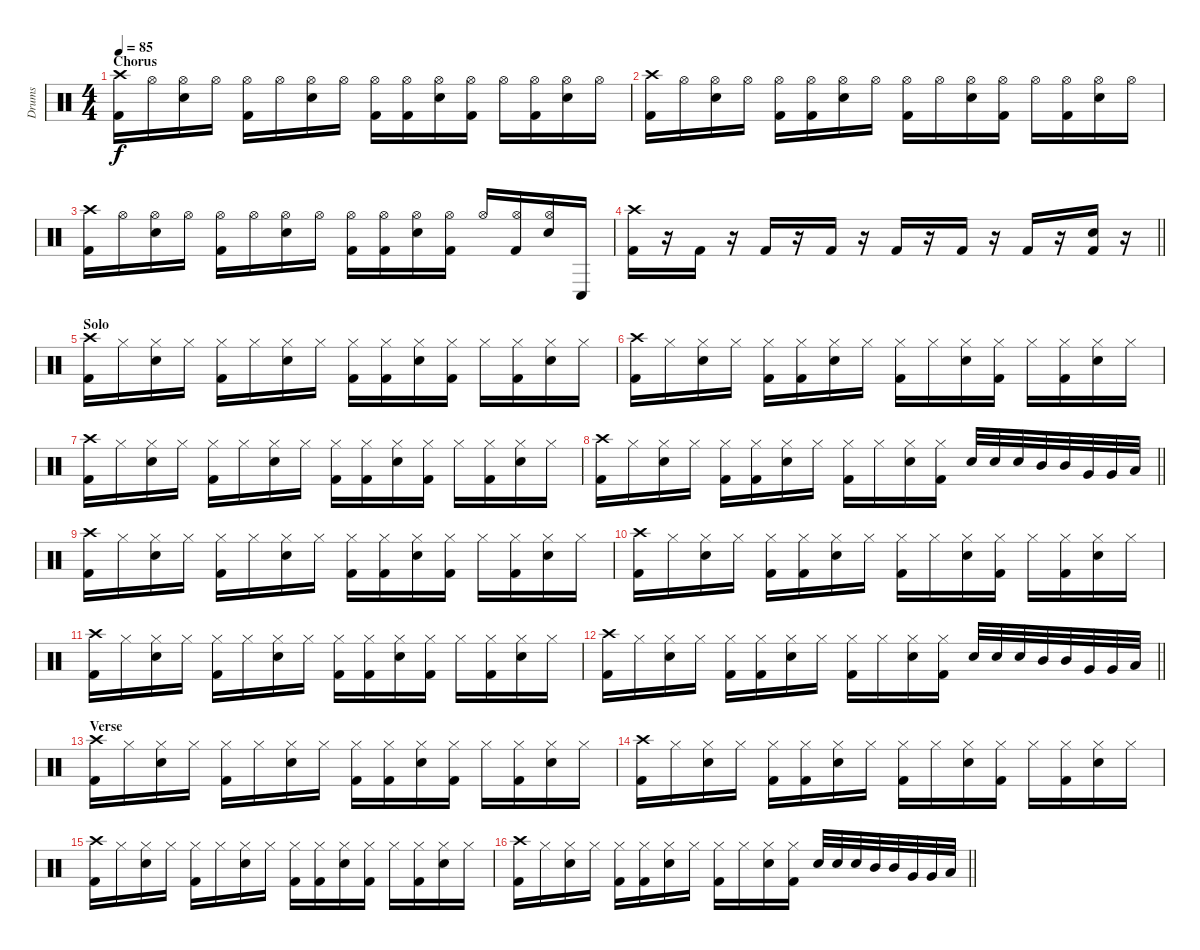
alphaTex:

\track ("Drums" "Drums") {instrument percussion}
\staff {score}
\articulation defaults
\ts (4 4)
\section ("" "Chorus")
\tempo 85
\clef neutral
\ks c
("Crash high (hit)" "Kick (hit) 2").16{dy f} "Hi-Hat (open)".16 ("Hi-Hat (open)" "Snare (hit) 2").16 "Hi-Hat (open)".16 ("Hi-Hat (open)" "Kick (hit) 2").16 "Hi-Hat (open)".16 ("Hi-Hat (open)" "Snare (hit) 2").16 "Hi-Hat (open)".16 ("Hi-Hat (open)" "Kick (hit) 2").16 ("Hi-Hat (open)" "Kick (hit) 2").16 ("Hi-Hat (open)" "Snare (hit) 2").16 ("Hi-Hat (open)" "Kick (hit) 2").16 "Hi-Hat (open)".16 ("Hi-Hat (open)" "Kick (hit) 2").16 ("Hi-Hat (open)" "Snare (hit) 2").16 "Hi-Hat (open)".16 |
("Crash high (hit)" "Kick (hit) 2").16 "Hi-Hat (open)".16 ("Hi-Hat (open)" "Snare (hit) 2").16 "Hi-Hat (open)".16 ("Hi-Hat (open)" "Kick (hit) 2").16 ("Hi-Hat (open)" "Kick (hit) 2").16 ("Hi-Hat (open)" "Snare (hit) 2").16 "Hi-Hat (open)".16 ("Hi-Hat (open)" "Kick (hit) 2").16 "Hi-Hat (open)".16 ("Hi-Hat (open)" "Snare (hit) 2").16 ("Hi-Hat (open)" "Kick (hit) 2").16 "Hi-Hat (open)".16 ("Hi-Hat (open)" "Kick (hit) 2").16 ("Hi-Hat (open)" "Snare (hit) 2").16 "Hi-Hat (open)".16 |
("Crash high (hit)" "Kick (hit) 2").16 "Hi-Hat (open)".16 ("Hi-Hat (open)" "Snare (hit) 2").16 "Hi-Hat (open)".16 ("Hi-Hat (open)" "Kick (hit) 2").16 "Hi-Hat (open)".16 ("Hi-Hat (open)" "Snare (hit) 2").16 "Hi-Hat (open)".16 ("Hi-Hat (open)" "Kick (hit) 2").16 ("Hi-Hat (open)" "Kick (hit) 2").16 ("Hi-Hat (open)" "Snare (hit) 2").16 ("Hi-Hat (open)" "Kick (hit) 2").16 "Hi-Hat (open)".16 ("Hi-Hat (open)" "Kick (hit) 2").16 ("Hi-Hat (open)" "Snare (hit) 2").16 "Conga low (hit)".16 |
\barLineRight lightlight
("Crash high (hit)" "Kick (hit) 2").16 r.16 "Kick (hit) 2".16 r.16 "Kick (hit) 2".16 r.16 "Kick (hit) 2".16 r.16 "Kick (hit) 2".16 r.16 "Kick (hit) 2".16 r.16 "Kick (hit) 2".16 r.16 ("Snare (hit) 2" "Kick (hit) 2").16 r.16 |
\section ("" "Solo")
("Crash high (hit)" "Kick (hit) 2").16 "Hi-Hat (closed)".16 ("Hi-Hat (closed)" "Snare (hit) 2").16 "Hi-Hat (closed)".16 ("Hi-Hat (closed)" "Kick (hit) 2").16 "Hi-Hat (closed)".16 ("Hi-Hat (closed)" "Snare (hit) 2").16 "Hi-Hat (closed)".16 ("Hi-Hat (closed)" "Kick (hit) 2").16 ("Hi-Hat (closed)" "Kick (hit) 2").16 ("Hi-Hat (closed)" "Snare (hit) 2").16 ("Hi-Hat (closed)" "Kick (hit) 2").16 "Hi-Hat (closed)".16 ("Hi-Hat (closed)" "Kick (hit) 2").16 ("Hi-Hat (closed)" "Snare (hit) 2").16 "Hi-Hat (closed)".16 |
("Crash high (hit)" "Kick (hit) 2").16 "Hi-Hat (closed)".16 ("Hi-Hat (closed)" "Snare (hit) 2").16 "Hi-Hat (closed)".16 ("Hi-Hat (closed)" "Kick (hit) 2").16 ("Hi-Hat (closed)" "Kick (hit) 2").16 ("Hi-Hat (closed)" "Snare (hit) 2").16 "Hi-Hat (closed)".16 ("Hi-Hat (closed)" "Kick (hit) 2").16 "Hi-Hat (closed)".16 ("Hi-Hat (closed)" "Snare (hit) 2").16 ("Hi-Hat (closed)" "Kick (hit) 2").16 "Hi-Hat (closed)".16 ("Hi-Hat (closed)" "Kick (hit) 2").16 ("Hi-Hat (closed)" "Snare (hit) 2").16 "Hi-Hat (closed)".16 |
("Crash high (hit)" "Kick (hit) 2").16 "Hi-Hat (closed)".16 ("Hi-Hat (closed)" "Snare (hit) 2").16 "Hi-Hat (closed)".16 ("Hi-Hat (closed)" "Kick (hit) 2").16 "Hi-Hat (closed)".16 ("Hi-Hat (closed)" "Snare (hit) 2").16 "Hi-Hat (closed)".16 ("Hi-Hat (closed)" "Kick (hit) 2").16 ("Hi-Hat (closed)" "Kick (hit) 2").16 ("Hi-Hat (closed)" "Snare (hit) 2").16 ("Hi-Hat (closed)" "Kick (hit) 2").16 "Hi-Hat (closed)".16 ("Hi-Hat (closed)" "Kick (hit) 2").16 ("Hi-Hat (closed)" "Snare (hit) 2").16 "Hi-Hat (closed)".16 |
\barLineRight lightlight
("Crash high (hit)" "Kick (hit) 2").16 "Hi-Hat (closed)".16 ("Hi-Hat (closed)" "Snare (hit) 2").16 "Hi-Hat (closed)".16 ("Hi-Hat (closed)" "Kick (hit) 2").16 ("Hi-Hat (closed)" "Kick (hit) 2").16 ("Hi-Hat (closed)" "Snare (hit) 2").16 "Hi-Hat (closed)".16 ("Hi-Hat (closed)" "Kick (hit) 2").16 "Hi-Hat (closed)".16 ("Hi-Hat (closed)" "Snare (hit) 2").16 ("Hi-Hat (closed)" "Kick (hit) 2").16 "Snare (hit) 2".32 "Snare (hit) 2".32 "Snare (hit) 2".32 "Mid Tom (hit)".32 "Mid Tom (hit)".32 "Very Low Tom (hit)".32 "Very Low Tom (hit)".32 "Low Floor Tom (hit)".32 |
("Crash high (hit)" "Kick (hit) 2").16 "Hi-Hat (closed)".16 ("Hi-Hat (closed)" "Snare (hit) 2").16 "Hi-Hat (closed)".16 ("Hi-Hat (closed)" "Kick (hit) 2").16 "Hi-Hat (closed)".16 ("Hi-Hat (closed)" "Snare (hit) 2").16 "Hi-Hat (closed)".16 ("Hi-Hat (closed)" "Kick (hit) 2").16 ("Hi-Hat (closed)" "Kick (hit) 2").16 ("Hi-Hat (closed)" "Snare (hit) 2").16 ("Hi-Hat (closed)" "Kick (hit) 2").16 "Hi-Hat (closed)".16 ("Hi-Hat (closed)" "Kick (hit) 2").16 ("Hi-Hat (closed)" "Snare (hit) 2").16 "Hi-Hat (closed)".16 |
("Crash high (hit)" "Kick (hit) 2").16 "Hi-Hat (closed)".16 ("Hi-Hat (closed)" "Snare (hit) 2").16 "Hi-Hat (closed)".16 ("Hi-Hat (closed)" "Kick (hit) 2").16 ("Hi-Hat (closed)" "Kick (hit) 2").16 ("Hi-Hat (closed)" "Snare (hit) 2").16 "Hi-Hat (closed)".16 ("Hi-Hat (closed)" "Kick (hit) 2").16 "Hi-Hat (closed)".16 ("Hi-Hat (closed)" "Snare (hit) 2").16 ("Hi-Hat (closed)" "Kick (hit) 2").16 "Hi-Hat (closed)".16 ("Hi-Hat (closed)" "Kick (hit) 2").16 ("Hi-Hat (closed)" "Snare (hit) 2").16 "Hi-Hat (closed)".16 |
("Crash high (hit)" "Kick (hit) 2").16 "Hi-Hat (closed)".16 ("Hi-Hat (closed)" "Snare (hit) 2").16 "Hi-Hat (closed)".16 ("Hi-Hat (closed)" "Kick (hit) 2").16 "Hi-Hat (closed)".16 ("Hi-Hat (closed)" "Snare (hit) 2").16 "Hi-Hat (closed)".16 ("Hi-Hat (closed)" "Kick (hit) 2").16 ("Hi-Hat (closed)" "Kick (hit) 2").16 ("Hi-Hat (closed)" "Snare (hit) 2").16 ("Hi-Hat (closed)" "Kick (hit) 2").16 "Hi-Hat (closed)".16 ("Hi-Hat (closed)" "Kick (hit) 2").16 ("Hi-Hat (closed)" "Snare (hit) 2").16 "Hi-Hat (closed)".16 |
\barLineRight lightlight
("Crash high (hit)" "Kick (hit) 2").16 "Hi-Hat (closed)".16 ("Hi-Hat (closed)" "Snare (hit) 2").16 "Hi-Hat (closed)".16 ("Hi-Hat (closed)" "Kick (hit) 2").16 ("Hi-Hat (closed)" "Kick (hit) 2").16 ("Hi-Hat (closed)" "Snare (hit) 2").16 "Hi-Hat (closed)".16 ("Hi-Hat (closed)" "Kick (hit) 2").16 "Hi-Hat (closed)".16 ("Hi-Hat (closed)" "Snare (hit) 2").16 ("Hi-Hat (closed)" "Kick (hit) 2").16 "Snare (hit) 2".32 "Snare (hit) 2".32 "Snare (hit) 2".32 "Mid Tom (hit)".32 "Mid Tom (hit)".32 "Very Low Tom (hit)".32 "Very Low Tom (hit)".32 "Low Floor Tom (hit)".32 |
\section ("" "Verse")
("Crash high (hit)" "Kick (hit) 2").16 "Hi-Hat (closed)".16 ("Hi-Hat (closed)" "Snare (hit) 2").16 "Hi-Hat (closed)".16 ("Hi-Hat (closed)" "Kick (hit) 2").16 "Hi-Hat (closed)".16 ("Hi-Hat (closed)" "Snare (hit) 2").16 "Hi-Hat (closed)".16 ("Hi-Hat (closed)" "Kick (hit) 2").16 ("Hi-Hat (closed)" "Kick (hit) 2").16 ("Hi-Hat (closed)" "Snare (hit) 2").16 ("Hi-Hat (closed)" "Kick (hit) 2").16 "Hi-Hat (closed)".16 ("Hi-Hat (closed)" "Kick (hit) 2").16 ("Hi-Hat (closed)" "Snare (hit) 2").16 "Hi-Hat (closed)".16 |
("Crash high (hit)" "Kick (hit) 2").16 "Hi-Hat (closed)".16 ("Hi-Hat (closed)" "Snare (hit) 2").16 "Hi-Hat (closed)".16 ("Hi-Hat (closed)" "Kick (hit) 2").16 ("Hi-Hat (closed)" "Kick (hit) 2").16 ("Hi-Hat (closed)" "Snare (hit) 2").16 "Hi-Hat (closed)".16 ("Hi-Hat (closed)" "Kick (hit) 2").16 "Hi-Hat (closed)".16 ("Hi-Hat (closed)" "Snare (hit) 2").16 ("Hi-Hat (closed)" "Kick (hit) 2").16 "Hi-Hat (closed)".16 ("Hi-Hat (closed)" "Kick (hit) 2").16 ("Hi-Hat (closed)" "Snare (hit) 2").16 "Hi-Hat (closed)".16 |
("Crash high (hit)" "Kick (hit) 2").16 "Hi-Hat (closed)".16 ("Hi-Hat (closed)" "Snare (hit) 2").16 "Hi-Hat (closed)".16 ("Hi-Hat (closed)" "Kick (hit) 2").16 "Hi-Hat (closed)".16 ("Hi-Hat (closed)" "Snare (hit) 2").16 "Hi-Hat (closed)".16 ("Hi-Hat (closed)" "Kick (hit) 2").16 ("Hi-Hat (closed)" "Kick (hit) 2").16 ("Hi-Hat (closed)" "Snare (hit) 2").16 ("Hi-Hat (closed)" "Kick (hit) 2").16 "Hi-Hat (closed)".16 ("Hi-Hat (closed)" "Kick (hit) 2").16 ("Hi-Hat (closed)" "Snare (hit) 2").16 "Hi-Hat (closed)".16 |
\barLineRight lightlight
("Crash high (hit)" "Kick (hit) 2").16 "Hi-Hat (closed)".16 ("Hi-Hat (closed)" "Snare (hit) 2").16 "Hi-Hat (closed)".16 ("Hi-Hat (closed)" "Kick (hit) 2").16 ("Hi-Hat (closed)" "Kick (hit) 2").16 ("Hi-Hat (closed)" "Snare (hit) 2").16 "Hi-Hat (closed)".16 ("Hi-Hat (closed)" "Kick (hit) 2").16 "Hi-Hat (closed)".16 ("Hi-Hat (closed)" "Snare (hit) 2").16 ("Hi-Hat (closed)" "Kick (hit) 2").16 "Snare (hit) 2".32 "Snare (hit) 2".32 "Snare (hit) 2".32 "Mid Tom (hit)".32 "Mid Tom (hit)".32 "Very Low Tom (hit)".32 "Very Low Tom (hit)".32 "Low Floor Tom (hit)".32
